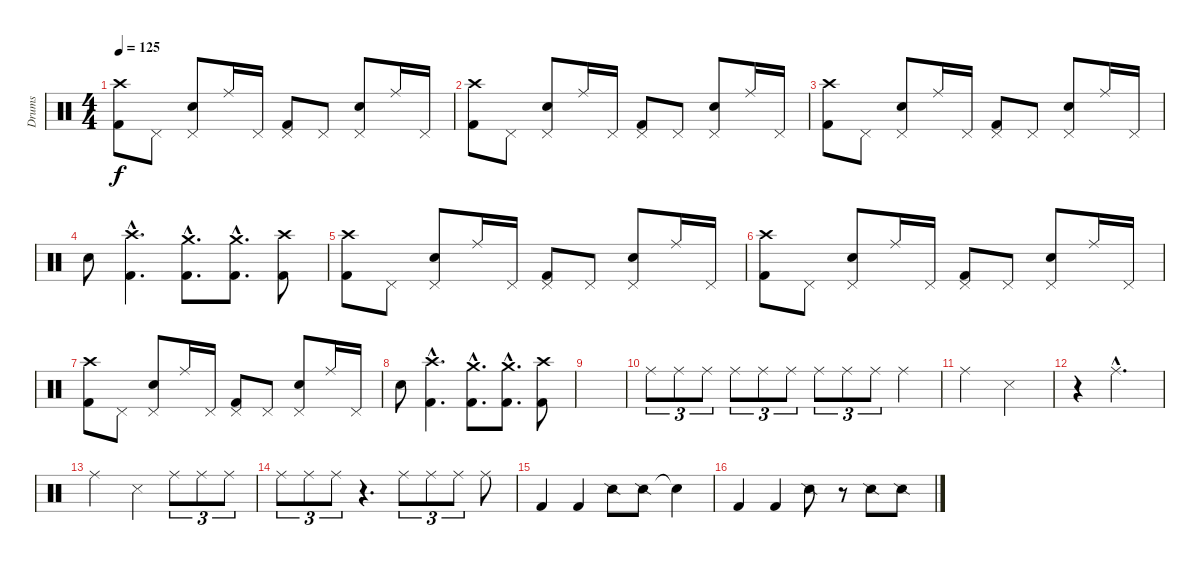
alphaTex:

\track ("Drums" "Drums") {instrument percussion}
\staff {score}
\articulation defaults
\ts (4 4)
\tempo 125
\clef neutral
\ks c
("Crash high (hit)" "Kick (hit) 2").8{dy f} "Pedal Hi-Hat (hit)".8 ("Pedal Hi-Hat (hit)" "Snare (hit) 2").8 "Ride (middle)".16 "Pedal Hi-Hat (hit)".16 ("Pedal Hi-Hat (hit)" "Kick (hit) 2").8 "Pedal Hi-Hat (hit)".8 ("Pedal Hi-Hat (hit)" "Snare (hit) 2").8 "Ride (middle)".16 "Pedal Hi-Hat (hit)".16 |
("Crash high (hit)" "Kick (hit) 2").8 "Pedal Hi-Hat (hit)".8 ("Pedal Hi-Hat (hit)" "Snare (hit) 2").8 "Ride (middle)".16 "Pedal Hi-Hat (hit)".16 ("Pedal Hi-Hat (hit)" "Kick (hit) 2").8 "Pedal Hi-Hat (hit)".8 ("Pedal Hi-Hat (hit)" "Snare (hit) 2").8 "Ride (middle)".16 "Pedal Hi-Hat (hit)".16 |
("Crash high (hit)" "Kick (hit) 2").8 "Pedal Hi-Hat (hit)".8 ("Pedal Hi-Hat (hit)" "Snare (hit) 2").8 "Ride (middle)".16 "Pedal Hi-Hat (hit)".16 ("Pedal Hi-Hat (hit)" "Kick (hit) 2").8 "Pedal Hi-Hat (hit)".8 ("Pedal Hi-Hat (hit)" "Snare (hit) 2").8 "Ride (middle)".16 "Pedal Hi-Hat (hit)".16 |
"Snare (hit) 2".8 ("Crash high (hit)"{hac} "Kick (hit) 2"{hac}).4{d} ("Crash medium (hit)"{hac} "Kick (hit) 2"{hac}).8{d} ("Crash medium (hit)"{hac} "Kick (hit) 2"{hac}).8{d} ("Crash high (hit)" "Kick (hit) 2").8 |
("Crash high (hit)" "Kick (hit) 2").8 "Pedal Hi-Hat (hit)".8 ("Pedal Hi-Hat (hit)" "Snare (hit) 2").8 "Ride (middle)".16 "Pedal Hi-Hat (hit)".16 ("Pedal Hi-Hat (hit)" "Kick (hit) 2").8 "Pedal Hi-Hat (hit)".8 ("Pedal Hi-Hat (hit)" "Snare (hit) 2").8 "Ride (middle)".16 "Pedal Hi-Hat (hit)".16 |
("Crash high (hit)" "Kick (hit) 2").8 "Pedal Hi-Hat (hit)".8 ("Pedal Hi-Hat (hit)" "Snare (hit) 2").8 "Ride (middle)".16 "Pedal Hi-Hat (hit)".16 ("Pedal Hi-Hat (hit)" "Kick (hit) 2").8 "Pedal Hi-Hat (hit)".8 ("Pedal Hi-Hat (hit)" "Snare (hit) 2").8 "Ride (middle)".16 "Pedal Hi-Hat (hit)".16 |
("Crash high (hit)" "Kick (hit) 2").8 "Pedal Hi-Hat (hit)".8 ("Pedal Hi-Hat (hit)" "Snare (hit) 2").8 "Ride (middle)".16 "Pedal Hi-Hat (hit)".16 ("Pedal Hi-Hat (hit)" "Kick (hit) 2").8 "Pedal Hi-Hat (hit)".8 ("Pedal Hi-Hat (hit)" "Snare (hit) 2").8 "Ride (middle)".16 "Pedal Hi-Hat (hit)".16 |
"Snare (hit) 2".8 ("Crash high (hit)"{hac} "Kick (hit) 2"{hac}).4{d} ("Kick (hit) 2"{hac} "Crash medium (hit)"{hac}).8{d} ("Kick (hit) 2"{hac} "Crash medium (hit)"{hac}).8{d} ("Crash high (hit)" "Kick (hit) 2").8 |
|
"Ride (middle)".8{tu (3 2) volume 6} "Ride (middle)".8{tu (3 2)} "Ride (middle)".8{tu (3 2)} "Ride (middle)".8{tu (3 2)} "Ride (middle)".8{tu (3 2)} "Ride (middle)".8{tu (3 2)} "Ride (middle)".8{tu (3 2)} "Ride (middle)".8{tu (3 2)} "Ride (middle)".8{tu (3 2)} "Ride (middle)".4 |
"Ride (middle)".2 "Snare (side stick) 3".2 |
r.4 "Ride (middle)"{hac}.2{d} |
"Ride (middle)".2 "Snare (side stick) 3".4 "Ride (middle)".8{tu (3 2)} "Ride (middle)".8{tu (3 2)} "Ride (middle)".8{tu (3 2)} |
"Ride (middle)".8{tu (3 2)} "Ride (middle)".8{tu (3 2)} "Ride (middle)".8{tu (3 2)} r.4{d} "Ride (middle)".8{tu (3 2)} "Ride (middle)".8{tu (3 2)} "Ride (middle)".8{tu (3 2)} "Ride (middle)".8 |
"Kick (hit) 2".4 "Kick (hit) 2".4 "Snare (side stick) 2".8 "Snare (side stick) 2".8 "Snare (hit)"{t}.4 |
"Kick (hit) 2".4 "Kick (hit) 2".4 "Snare (side stick) 2".8 r.8 "Snare (side stick) 2".8 "Snare (side stick) 2".8
